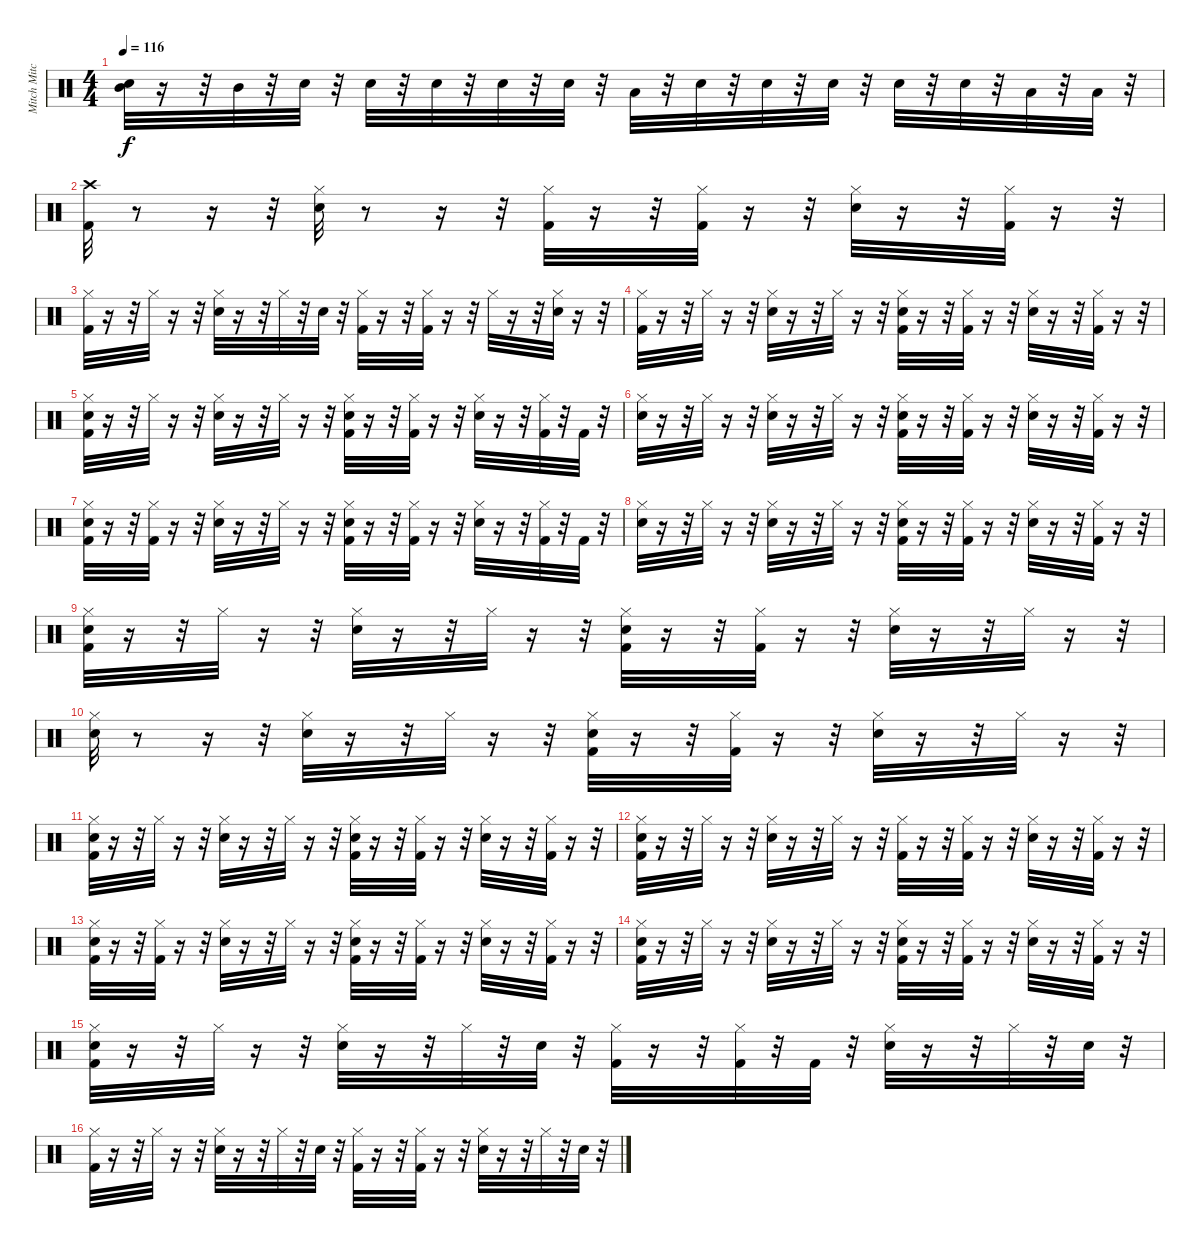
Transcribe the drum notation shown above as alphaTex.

\track ("Mitch Mitchell" "Mitch Mitc") {instrument percussion}
\staff {score}
\articulation defaults
\ts (4 4)
\tempo 116
\clef neutral
\ks c
("Snare (hit) 2" "Mid Tom (hit)").32{dy f} r.16 r.32 "Mid Tom (hit)".32 r.32 "Snare (hit) 2".32 r.32 "Snare (hit) 2".32 r.32 "Snare (hit) 2".32 r.32 "Snare (hit) 2".32 r.32 "Snare (hit) 2".32 r.32 "Low Floor Tom (hit)".32 r.32 "Snare (hit) 2".32 r.32 "Snare (hit) 2".32 r.32 "Snare (hit) 2".32 r.32 "Snare (hit) 2".32 r.32 "Snare (hit) 2".32 r.32 "Low Floor Tom (hit)".32 r.32 "Low Floor Tom (hit)".32 r.32 |
("Kick (hit) 2" "Crash high (hit)").32 r.8 r.16 r.32 ("Hi-Hat (closed)" "Snare (hit) 2").32 r.8 r.16 r.32 ("Hi-Hat (closed)" "Kick (hit) 2").32 r.16 r.32 ("Hi-Hat (closed)" "Kick (hit) 2").32 r.16 r.32 ("Hi-Hat (closed)" "Snare (hit) 2").32 r.16 r.32 ("Hi-Hat (closed)" "Kick (hit) 2").32 r.16 r.32 |
("Kick (hit) 2" "Hi-Hat (closed)").32 r.16 r.32 "Hi-Hat (closed)".32 r.16 r.32 ("Snare (hit) 2" "Hi-Hat (closed)").32 r.16 r.32 "Hi-Hat (closed)".32 r.32 "Snare (hit) 2".32 r.32 ("Kick (hit) 2" "Hi-Hat (closed)").32 r.16 r.32 ("Kick (hit) 2" "Hi-Hat (closed)").32 r.16 r.32 "Hi-Hat (closed)".32 r.16 r.32 ("Snare (hit) 2" "Hi-Hat (closed)").32 r.16 r.32 |
("Kick (hit) 2" "Hi-Hat (closed)").32 r.16 r.32 "Hi-Hat (closed)".32 r.16 r.32 ("Snare (hit) 2" "Hi-Hat (closed)").32 r.16 r.32 "Hi-Hat (closed)".32 r.16 r.32 ("Kick (hit) 2" "Snare (hit) 2" "Hi-Hat (closed)").32 r.16 r.32 ("Kick (hit) 2" "Hi-Hat (closed)").32 r.16 r.32 ("Snare (hit) 2" "Hi-Hat (closed)").32 r.16 r.32 ("Hi-Hat (closed)" "Kick (hit) 2").32 r.16 r.32 |
("Snare (hit) 2" "Kick (hit) 2" "Hi-Hat (closed)").32 r.16 r.32 "Hi-Hat (closed)".32 r.16 r.32 ("Snare (hit) 2" "Hi-Hat (closed)").32 r.16 r.32 "Hi-Hat (closed)".32 r.16 r.32 ("Snare (hit) 2" "Kick (hit) 2" "Hi-Hat (closed)").32 r.16 r.32 ("Kick (hit) 2" "Hi-Hat (closed)").32 r.16 r.32 ("Snare (hit) 2" "Hi-Hat (closed)").32 r.16 r.32 ("Kick (hit) 2" "Hi-Hat (closed)").32 r.32 "Kick (hit) 2".32 r.32 |
("Snare (hit) 2" "Hi-Hat (closed)").32 r.16 r.32 "Hi-Hat (closed)".32 r.16 r.32 ("Snare (hit) 2" "Hi-Hat (closed)").32 r.16 r.32 "Hi-Hat (closed)".32 r.16 r.32 ("Kick (hit) 2" "Snare (hit) 2" "Hi-Hat (closed)").32 r.16 r.32 ("Kick (hit) 2" "Hi-Hat (closed)").32 r.16 r.32 ("Snare (hit) 2" "Hi-Hat (closed)").32 r.16 r.32 ("Kick (hit) 2" "Hi-Hat (closed)").32 r.16 r.32 |
("Kick (hit) 2" "Snare (hit) 2" "Hi-Hat (closed)").32 r.16 r.32 ("Hi-Hat (closed)" "Kick (hit) 2").32 r.16 r.32 ("Snare (hit) 2" "Hi-Hat (closed)").32 r.16 r.32 "Hi-Hat (closed)".32 r.16 r.32 ("Kick (hit) 2" "Snare (hit) 2" "Hi-Hat (closed)").32 r.16 r.32 ("Kick (hit) 2" "Hi-Hat (closed)").32 r.16 r.32 ("Snare (hit) 2" "Hi-Hat (closed)").32 r.16 r.32 ("Kick (hit) 2" "Hi-Hat (closed)").32 r.32 "Kick (hit) 2".32 r.32 |
("Snare (hit) 2" "Hi-Hat (closed)").32 r.16 r.32 "Hi-Hat (closed)".32 r.16 r.32 ("Snare (hit) 2" "Hi-Hat (closed)").32 r.16 r.32 "Hi-Hat (closed)".32 r.16 r.32 ("Kick (hit) 2" "Snare (hit) 2" "Hi-Hat (closed)").32 r.16 r.32 ("Kick (hit) 2" "Hi-Hat (closed)").32 r.16 r.32 ("Snare (hit) 2" "Hi-Hat (closed)").32 r.16 r.32 ("Kick (hit) 2" "Hi-Hat (closed)").32 r.16 r.32 |
("Snare (hit) 2" "Kick (hit) 2" "Hi-Hat (closed)").32 r.16 r.32 "Hi-Hat (closed)".32 r.16 r.32 ("Snare (hit) 2" "Hi-Hat (closed)").32 r.16 r.32 "Hi-Hat (closed)".32 r.16 r.32 ("Snare (hit) 2" "Kick (hit) 2" "Hi-Hat (closed)").32 r.16 r.32 ("Kick (hit) 2" "Hi-Hat (closed)").32 r.16 r.32 ("Snare (hit) 2" "Hi-Hat (closed)").32 r.16 r.32 "Hi-Hat (closed)".32 r.16 r.32 |
("Snare (hit) 2" "Hi-Hat (closed)").32 r.8 r.16 r.32 ("Snare (hit) 2" "Hi-Hat (closed)").32 r.16 r.32 "Hi-Hat (closed)".32 r.16 r.32 ("Snare (hit) 2" "Kick (hit) 2" "Hi-Hat (closed)").32 r.16 r.32 ("Kick (hit) 2" "Hi-Hat (closed)").32 r.16 r.32 ("Snare (hit) 2" "Hi-Hat (closed)").32 r.16 r.32 "Hi-Hat (closed)".32 r.16 r.32 |
("Snare (hit) 2" "Kick (hit) 2" "Hi-Hat (closed)").32 r.16 r.32 "Hi-Hat (closed)".32 r.16 r.32 ("Snare (hit) 2" "Hi-Hat (closed)").32 r.16 r.32 "Hi-Hat (closed)".32 r.16 r.32 ("Snare (hit) 2" "Kick (hit) 2" "Hi-Hat (closed)").32 r.16 r.32 ("Kick (hit) 2" "Hi-Hat (closed)").32 r.16 r.32 ("Snare (hit) 2" "Hi-Hat (closed)").32 r.16 r.32 ("Kick (hit) 2" "Hi-Hat (closed)").32 r.16 r.32 |
("Snare (hit) 2" "Kick (hit) 2" "Hi-Hat (closed)").32 r.16 r.32 "Hi-Hat (closed)".32 r.16 r.32 ("Snare (hit) 2" "Hi-Hat (closed)").32 r.16 r.32 "Hi-Hat (closed)".32 r.16 r.32 ("Kick (hit) 2" "Hi-Hat (closed)").32 r.16 r.32 ("Kick (hit) 2" "Hi-Hat (closed)").32 r.16 r.32 ("Snare (hit) 2" "Hi-Hat (closed)").32 r.16 r.32 ("Kick (hit) 2" "Hi-Hat (closed)").32 r.16 r.32 |
("Snare (hit) 2" "Kick (hit) 2" "Hi-Hat (closed)").32 r.16 r.32 ("Kick (hit) 2" "Hi-Hat (closed)").32 r.16 r.32 ("Snare (hit) 2" "Hi-Hat (closed)").32 r.16 r.32 "Hi-Hat (closed)".32 r.16 r.32 ("Snare (hit) 2" "Kick (hit) 2" "Hi-Hat (closed)").32 r.16 r.32 ("Kick (hit) 2" "Hi-Hat (closed)").32 r.16 r.32 ("Snare (hit) 2" "Hi-Hat (closed)").32 r.16 r.32 ("Kick (hit) 2" "Hi-Hat (closed)").32 r.16 r.32 |
("Snare (hit) 2" "Kick (hit) 2" "Hi-Hat (closed)").32 r.16 r.32 "Hi-Hat (closed)".32 r.16 r.32 ("Snare (hit) 2" "Hi-Hat (closed)").32 r.16 r.32 "Hi-Hat (closed)".32 r.16 r.32 ("Snare (hit) 2" "Kick (hit) 2" "Hi-Hat (closed)").32 r.16 r.32 ("Kick (hit) 2" "Hi-Hat (closed)").32 r.16 r.32 ("Snare (hit) 2" "Hi-Hat (closed)").32 r.16 r.32 ("Kick (hit) 2" "Hi-Hat (closed)").32 r.16 r.32 |
("Snare (hit) 2" "Kick (hit) 2" "Hi-Hat (closed)").32 r.16 r.32 "Hi-Hat (closed)".32 r.16 r.32 ("Snare (hit) 2" "Hi-Hat (closed)").32 r.16 r.32 "Hi-Hat (closed)".32 r.32 "Snare (hit) 2".32 r.32 ("Kick (hit) 2" "Hi-Hat (closed)").32 r.16 r.32 ("Kick (hit) 2" "Hi-Hat (closed)").32 r.32 "Kick (hit) 2".32 r.32 ("Snare (hit) 2" "Hi-Hat (closed)").32 r.16 r.32 "Hi-Hat (closed)".32 r.32 "Snare (hit) 2".32 r.32 |
("Kick (hit) 2" "Hi-Hat (closed)").32 r.16 r.32 "Hi-Hat (closed)".32 r.16 r.32 ("Snare (hit) 2" "Hi-Hat (closed)").32 r.16 r.32 "Hi-Hat (closed)".32 r.32 "Snare (hit) 2".32 r.32 ("Kick (hit) 2" "Hi-Hat (closed)").32 r.16 r.32 ("Kick (hit) 2" "Hi-Hat (closed)").32 r.16 r.32 ("Snare (hit) 2" "Hi-Hat (closed)").32 r.16 r.32 "Hi-Hat (closed)".32 r.32 "Snare (hit) 2".32 r.32
